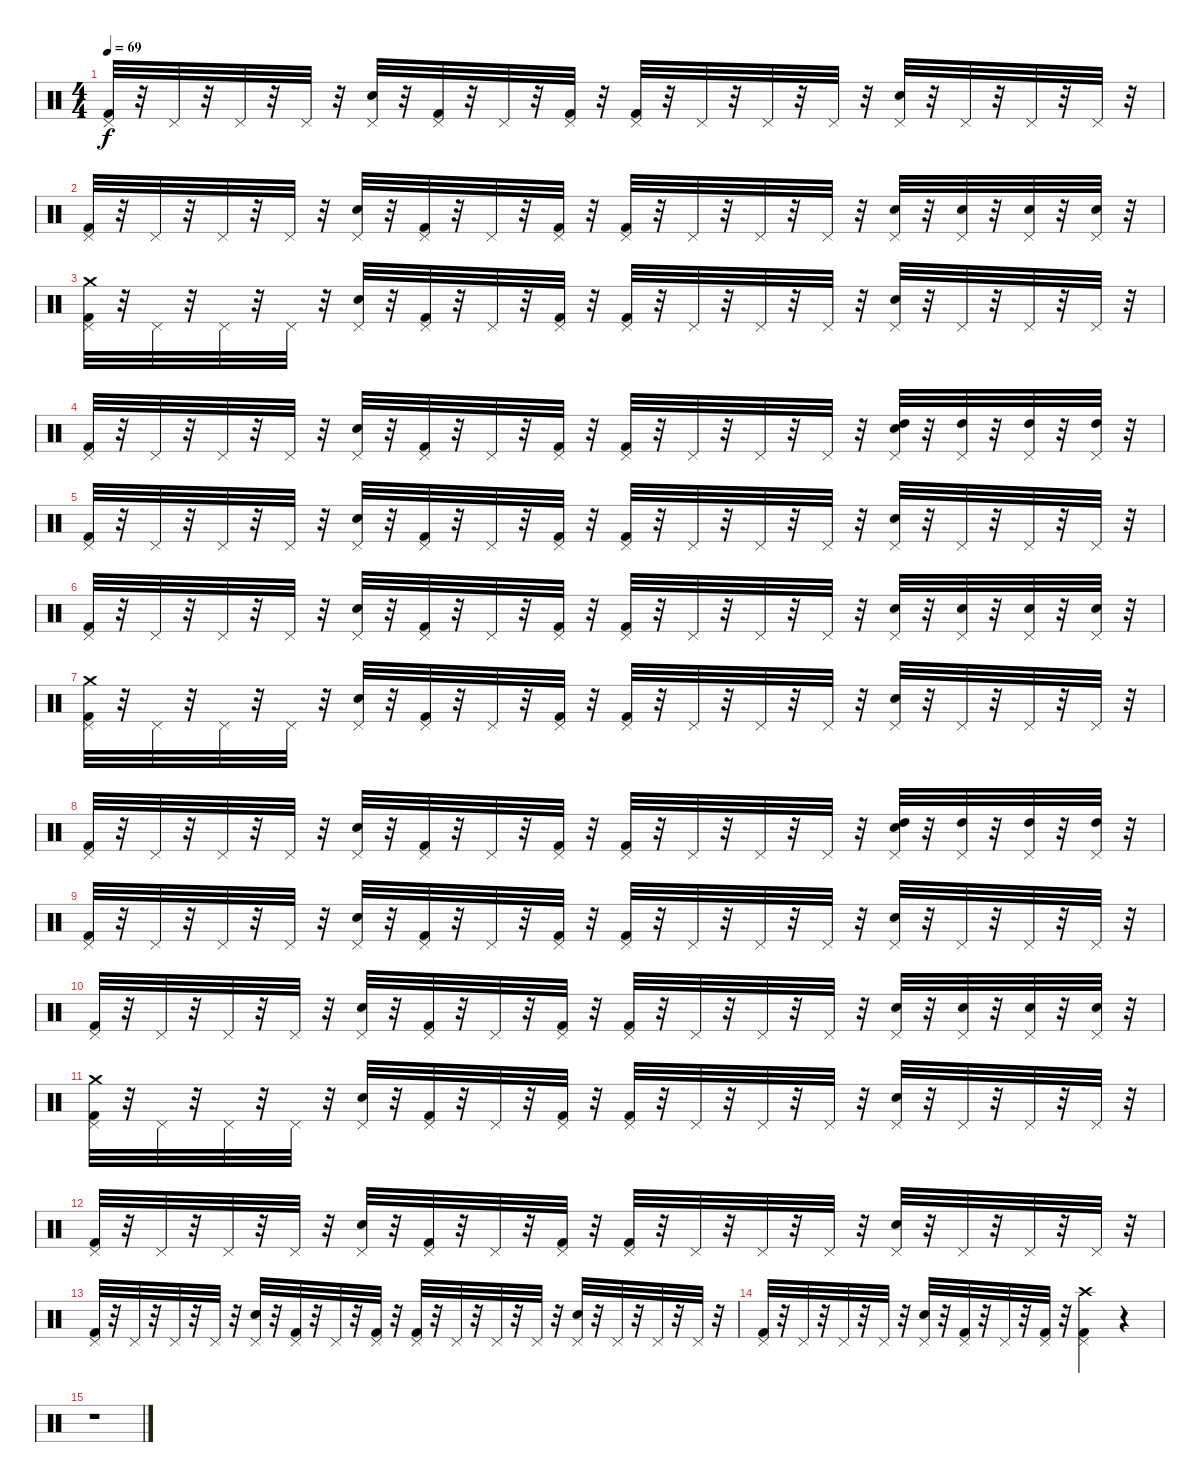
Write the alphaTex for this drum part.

\track "" {instrument percussion}
\staff {score}
\articulation defaults
\ts (4 4)
\tempo 69
\clef neutral
\ks c
("Pedal Hi-Hat (hit)" "Kick (hit) 2").32{dy f} r.32 "Pedal Hi-Hat (hit)".32 r.32 "Pedal Hi-Hat (hit)".32 r.32 "Pedal Hi-Hat (hit)".32 r.32 ("Pedal Hi-Hat (hit)" "Electric Snare (hit)").32 r.32 ("Pedal Hi-Hat (hit)" "Kick (hit) 2").32 r.32 "Pedal Hi-Hat (hit)".32 r.32 ("Pedal Hi-Hat (hit)" "Kick (hit) 2").32 r.32 ("Pedal Hi-Hat (hit)" "Kick (hit) 2").32 r.32 "Pedal Hi-Hat (hit)".32 r.32 "Pedal Hi-Hat (hit)".32 r.32 "Pedal Hi-Hat (hit)".32 r.32 ("Pedal Hi-Hat (hit)" "Electric Snare (hit)").32 r.32 "Pedal Hi-Hat (hit)".32 r.32 "Pedal Hi-Hat (hit)".32 r.32 "Pedal Hi-Hat (hit)".32 r.32 |
("Pedal Hi-Hat (hit)" "Kick (hit) 2").32 r.32 "Pedal Hi-Hat (hit)".32 r.32 "Pedal Hi-Hat (hit)".32 r.32 "Pedal Hi-Hat (hit)".32 r.32 ("Pedal Hi-Hat (hit)" "Electric Snare (hit)").32 r.32 ("Pedal Hi-Hat (hit)" "Kick (hit) 2").32 r.32 "Pedal Hi-Hat (hit)".32 r.32 ("Pedal Hi-Hat (hit)" "Kick (hit) 2").32 r.32 ("Pedal Hi-Hat (hit)" "Kick (hit) 2").32 r.32 "Pedal Hi-Hat (hit)".32 r.32 "Pedal Hi-Hat (hit)".32 r.32 "Pedal Hi-Hat (hit)".32 r.32 ("Pedal Hi-Hat (hit)" "Snare (hit) 2").32 r.32 ("Snare (hit) 2" "Pedal Hi-Hat (hit)").32 r.32 ("Snare (hit) 2" "Pedal Hi-Hat (hit)").32 r.32 ("Snare (hit) 2" "Pedal Hi-Hat (hit)").32 r.32 |
("Pedal Hi-Hat (hit)" "Crash medium (hit)" "Kick (hit) 2").32 r.32 "Pedal Hi-Hat (hit)".32 r.32 "Pedal Hi-Hat (hit)".32 r.32 "Pedal Hi-Hat (hit)".32 r.32 ("Pedal Hi-Hat (hit)" "Electric Snare (hit)").32 r.32 ("Pedal Hi-Hat (hit)" "Kick (hit) 2").32 r.32 "Pedal Hi-Hat (hit)".32 r.32 ("Pedal Hi-Hat (hit)" "Kick (hit) 2").32 r.32 ("Pedal Hi-Hat (hit)" "Kick (hit) 2").32 r.32 "Pedal Hi-Hat (hit)".32 r.32 "Pedal Hi-Hat (hit)".32 r.32 "Pedal Hi-Hat (hit)".32 r.32 ("Pedal Hi-Hat (hit)" "Electric Snare (hit)").32 r.32 "Pedal Hi-Hat (hit)".32 r.32 "Pedal Hi-Hat (hit)".32 r.32 "Pedal Hi-Hat (hit)".32 r.32 |
("Pedal Hi-Hat (hit)" "Kick (hit) 2").32 r.32 "Pedal Hi-Hat (hit)".32 r.32 "Pedal Hi-Hat (hit)".32 r.32 "Pedal Hi-Hat (hit)".32 r.32 ("Pedal Hi-Hat (hit)" "Electric Snare (hit)").32 r.32 ("Pedal Hi-Hat (hit)" "Kick (hit) 2").32 r.32 "Pedal Hi-Hat (hit)".32 r.32 ("Pedal Hi-Hat (hit)" "Kick (hit) 2").32 r.32 ("Pedal Hi-Hat (hit)" "Kick (hit) 2").32 r.32 "Pedal Hi-Hat (hit)".32 r.32 "Pedal Hi-Hat (hit)".32 r.32 "Pedal Hi-Hat (hit)".32 r.32 ("High Tom (hit)" "Pedal Hi-Hat (hit)" "Electric Snare (hit)").32 r.32 ("High Tom (hit)" "Pedal Hi-Hat (hit)").32 r.32 ("High Tom (hit)" "Pedal Hi-Hat (hit)").32 r.32 ("High Tom (hit)" "Pedal Hi-Hat (hit)").32 r.32 |
("Pedal Hi-Hat (hit)" "Kick (hit) 2").32 r.32 "Pedal Hi-Hat (hit)".32 r.32 "Pedal Hi-Hat (hit)".32 r.32 "Pedal Hi-Hat (hit)".32 r.32 ("Pedal Hi-Hat (hit)" "Electric Snare (hit)").32 r.32 ("Pedal Hi-Hat (hit)" "Kick (hit) 2").32 r.32 "Pedal Hi-Hat (hit)".32 r.32 ("Pedal Hi-Hat (hit)" "Kick (hit) 2").32 r.32 ("Pedal Hi-Hat (hit)" "Kick (hit) 2").32 r.32 "Pedal Hi-Hat (hit)".32 r.32 "Pedal Hi-Hat (hit)".32 r.32 "Pedal Hi-Hat (hit)".32 r.32 ("Pedal Hi-Hat (hit)" "Electric Snare (hit)").32 r.32 "Pedal Hi-Hat (hit)".32 r.32 "Pedal Hi-Hat (hit)".32 r.32 "Pedal Hi-Hat (hit)".32 r.32 |
("Pedal Hi-Hat (hit)" "Kick (hit) 2").32 r.32 "Pedal Hi-Hat (hit)".32 r.32 "Pedal Hi-Hat (hit)".32 r.32 "Pedal Hi-Hat (hit)".32 r.32 ("Pedal Hi-Hat (hit)" "Electric Snare (hit)").32 r.32 ("Pedal Hi-Hat (hit)" "Kick (hit) 2").32 r.32 "Pedal Hi-Hat (hit)".32 r.32 ("Pedal Hi-Hat (hit)" "Kick (hit) 2").32 r.32 ("Pedal Hi-Hat (hit)" "Kick (hit) 2").32 r.32 "Pedal Hi-Hat (hit)".32 r.32 "Pedal Hi-Hat (hit)".32 r.32 "Pedal Hi-Hat (hit)".32 r.32 ("Pedal Hi-Hat (hit)" "Snare (hit) 2").32 r.32 ("Snare (hit) 2" "Pedal Hi-Hat (hit)").32 r.32 ("Snare (hit) 2" "Pedal Hi-Hat (hit)").32 r.32 ("Snare (hit) 2" "Pedal Hi-Hat (hit)").32 r.32 |
("Pedal Hi-Hat (hit)" "Crash medium (hit)" "Kick (hit) 2").32 r.32 "Pedal Hi-Hat (hit)".32 r.32 "Pedal Hi-Hat (hit)".32 r.32 "Pedal Hi-Hat (hit)".32 r.32 ("Pedal Hi-Hat (hit)" "Electric Snare (hit)").32 r.32 ("Pedal Hi-Hat (hit)" "Kick (hit) 2").32 r.32 "Pedal Hi-Hat (hit)".32 r.32 ("Pedal Hi-Hat (hit)" "Kick (hit) 2").32 r.32 ("Pedal Hi-Hat (hit)" "Kick (hit) 2").32 r.32 "Pedal Hi-Hat (hit)".32 r.32 "Pedal Hi-Hat (hit)".32 r.32 "Pedal Hi-Hat (hit)".32 r.32 ("Pedal Hi-Hat (hit)" "Electric Snare (hit)").32 r.32 "Pedal Hi-Hat (hit)".32 r.32 "Pedal Hi-Hat (hit)".32 r.32 "Pedal Hi-Hat (hit)".32 r.32 |
("Pedal Hi-Hat (hit)" "Kick (hit) 2").32 r.32 "Pedal Hi-Hat (hit)".32 r.32 "Pedal Hi-Hat (hit)".32 r.32 "Pedal Hi-Hat (hit)".32 r.32 ("Pedal Hi-Hat (hit)" "Electric Snare (hit)").32 r.32 ("Pedal Hi-Hat (hit)" "Kick (hit) 2").32 r.32 "Pedal Hi-Hat (hit)".32 r.32 ("Pedal Hi-Hat (hit)" "Kick (hit) 2").32 r.32 ("Pedal Hi-Hat (hit)" "Kick (hit) 2").32 r.32 "Pedal Hi-Hat (hit)".32 r.32 "Pedal Hi-Hat (hit)".32 r.32 "Pedal Hi-Hat (hit)".32 r.32 ("High Tom (hit)" "Pedal Hi-Hat (hit)" "Electric Snare (hit)").32 r.32 ("High Tom (hit)" "Pedal Hi-Hat (hit)").32 r.32 ("High Tom (hit)" "Pedal Hi-Hat (hit)").32 r.32 ("Pedal Hi-Hat (hit)" "High Tom (hit)").32 r.32 |
("Kick (hit) 2" "Pedal Hi-Hat (hit)").32 r.32 "Pedal Hi-Hat (hit)".32 r.32 "Pedal Hi-Hat (hit)".32 r.32 "Pedal Hi-Hat (hit)".32 r.32 ("Electric Snare (hit)" "Pedal Hi-Hat (hit)").32 r.32 ("Kick (hit) 2" "Pedal Hi-Hat (hit)").32 r.32 "Pedal Hi-Hat (hit)".32 r.32 ("Kick (hit) 2" "Pedal Hi-Hat (hit)").32 r.32 ("Kick (hit) 2" "Pedal Hi-Hat (hit)").32 r.32 "Pedal Hi-Hat (hit)".32 r.32 "Pedal Hi-Hat (hit)".32 r.32 "Pedal Hi-Hat (hit)".32 r.32 ("Electric Snare (hit)" "Pedal Hi-Hat (hit)").32 r.32 "Pedal Hi-Hat (hit)".32 r.32 "Pedal Hi-Hat (hit)".32 r.32 "Pedal Hi-Hat (hit)".32 r.32 |
("Kick (hit) 2" "Pedal Hi-Hat (hit)").32 r.32 "Pedal Hi-Hat (hit)".32 r.32 "Pedal Hi-Hat (hit)".32 r.32 "Pedal Hi-Hat (hit)".32 r.32 ("Electric Snare (hit)" "Pedal Hi-Hat (hit)").32 r.32 ("Pedal Hi-Hat (hit)" "Kick (hit) 2").32 r.32 "Pedal Hi-Hat (hit)".32 r.32 ("Kick (hit) 2" "Pedal Hi-Hat (hit)").32 r.32 ("Kick (hit) 2" "Pedal Hi-Hat (hit)").32 r.32 "Pedal Hi-Hat (hit)".32 r.32 "Pedal Hi-Hat (hit)".32 r.32 "Pedal Hi-Hat (hit)".32 r.32 ("Snare (hit) 2" "Pedal Hi-Hat (hit)").32 r.32 ("Snare (hit) 2" "Pedal Hi-Hat (hit)").32 r.32 ("Snare (hit) 2" "Pedal Hi-Hat (hit)").32 r.32 ("Snare (hit) 2" "Pedal Hi-Hat (hit)").32 r.32 |
("Crash medium (hit)" "Pedal Hi-Hat (hit)" "Kick (hit) 2").32 r.32 "Pedal Hi-Hat (hit)".32 r.32 "Pedal Hi-Hat (hit)".32 r.32 "Pedal Hi-Hat (hit)".32 r.32 ("Pedal Hi-Hat (hit)" "Electric Snare (hit)").32 r.32 ("Kick (hit) 2" "Pedal Hi-Hat (hit)").32 r.32 "Pedal Hi-Hat (hit)".32 r.32 ("Kick (hit) 2" "Pedal Hi-Hat (hit)").32 r.32 ("Kick (hit) 2" "Pedal Hi-Hat (hit)").32 r.32 "Pedal Hi-Hat (hit)".32 r.32 "Pedal Hi-Hat (hit)".32 r.32 "Pedal Hi-Hat (hit)".32 r.32 ("Pedal Hi-Hat (hit)" "Electric Snare (hit)").32 r.32 "Pedal Hi-Hat (hit)".32 r.32 "Pedal Hi-Hat (hit)".32 r.32 "Pedal Hi-Hat (hit)".32 r.32 |
("Kick (hit) 2" "Pedal Hi-Hat (hit)").32 r.32 "Pedal Hi-Hat (hit)".32 r.32 "Pedal Hi-Hat (hit)".32 r.32 "Pedal Hi-Hat (hit)".32 r.32 ("Electric Snare (hit)" "Pedal Hi-Hat (hit)").32 r.32 ("Kick (hit) 2" "Pedal Hi-Hat (hit)").32 r.32 "Pedal Hi-Hat (hit)".32 r.32 ("Kick (hit) 2" "Pedal Hi-Hat (hit)").32 r.32 ("Kick (hit) 2" "Pedal Hi-Hat (hit)").32 r.32 "Pedal Hi-Hat (hit)".32 r.32 "Pedal Hi-Hat (hit)".32 r.32 "Pedal Hi-Hat (hit)".32 r.32 ("Electric Snare (hit)" "Pedal Hi-Hat (hit)").32 r.32 "Pedal Hi-Hat (hit)".32 r.32 "Pedal Hi-Hat (hit)".32 r.32 "Pedal Hi-Hat (hit)".32 r.32 |
("Kick (hit) 2" "Pedal Hi-Hat (hit)").32 r.32 "Pedal Hi-Hat (hit)".32 r.32 "Pedal Hi-Hat (hit)".32 r.32 "Pedal Hi-Hat (hit)".32 r.32 ("Electric Snare (hit)" "Pedal Hi-Hat (hit)").32 r.32 ("Kick (hit) 2" "Pedal Hi-Hat (hit)").32 r.32 "Pedal Hi-Hat (hit)".32 r.32 ("Pedal Hi-Hat (hit)" "Kick (hit) 2").32 r.32 ("Pedal Hi-Hat (hit)" "Kick (hit) 2").32 r.32 "Pedal Hi-Hat (hit)".32 r.32 "Pedal Hi-Hat (hit)".32 r.32 "Pedal Hi-Hat (hit)".32 r.32 ("Electric Snare (hit)" "Pedal Hi-Hat (hit)").32 r.32 "Pedal Hi-Hat (hit)".32 r.32 "Pedal Hi-Hat (hit)".32 r.32 "Pedal Hi-Hat (hit)".32 r.32 |
("Kick (hit) 2" "Pedal Hi-Hat (hit)").32 r.32 "Pedal Hi-Hat (hit)".32 r.32 "Pedal Hi-Hat (hit)".32 r.32 "Pedal Hi-Hat (hit)".32 r.32 ("Pedal Hi-Hat (hit)" "Electric Snare (hit)").32 r.32 ("Kick (hit) 2" "Pedal Hi-Hat (hit)").32 r.32 "Pedal Hi-Hat (hit)".32 r.32 ("Pedal Hi-Hat (hit)" "Kick (hit) 2").32 r.32 ("Crash high (hit)" "Kick (hit) 2" "Pedal Hi-Hat (hit)").4 r.4 |
r.1
